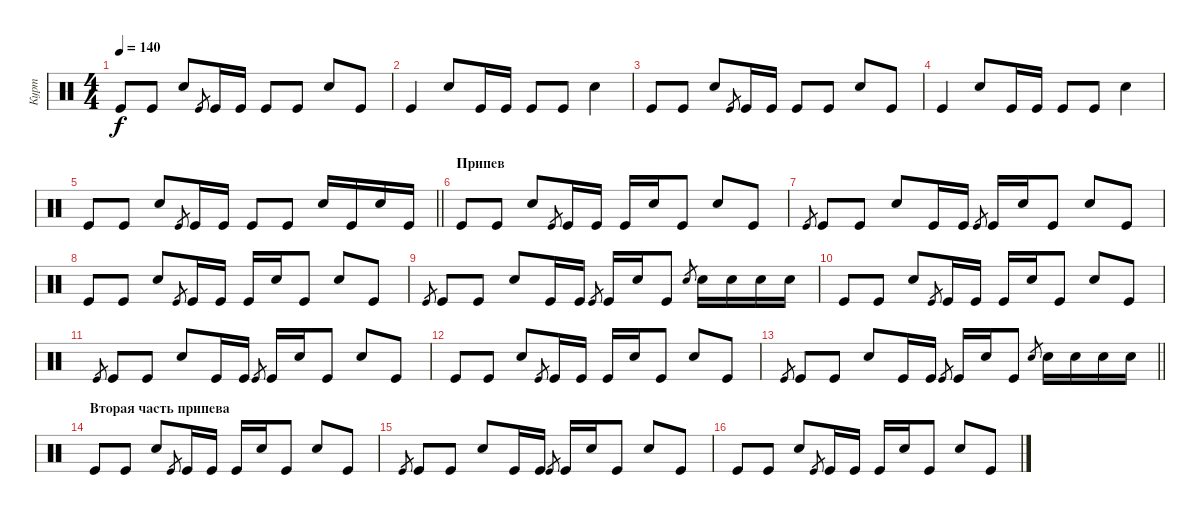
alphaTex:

\track ("Курт" "Курт") {instrument percussion}
\staff {score}
\articulation defaults
\ts (4 4)
\tempo 140
\clef neutral
\ks c "Kick (hit)".8{dy f} "Kick (hit)".8 "Snare (hit) 2".8 "Kick (hit)".8{gr} "Kick (hit)".16 "Kick (hit)".16 "Kick (hit)".8 "Kick (hit)".8 "Snare (hit) 2".8 "Kick (hit)".8
|
"Kick (hit)".4 "Snare (hit) 2".8 "Kick (hit)".16 "Kick (hit)".16 "Kick (hit)".8 "Kick (hit)".8 "Snare (hit) 2".4 |
"Kick (hit)".8 "Kick (hit)".8 "Snare (hit) 2".8 "Kick (hit)".8{gr} "Kick (hit)".16 "Kick (hit)".16 "Kick (hit)".8 "Kick (hit)".8 "Snare (hit) 2".8 "Kick (hit)".8 |
"Kick (hit)".4 "Snare (hit) 2".8 "Kick (hit)".16 "Kick (hit)".16 "Kick (hit)".8 "Kick (hit)".8 "Snare (hit) 2".4 |
\barLineRight lightlight "Kick (hit)".8 "Kick (hit)".8 "Snare (hit) 2".8 "Kick (hit)".8{gr} "Kick (hit)".16 "Kick (hit)".16 "Kick (hit)".8 "Kick (hit)".8 "Snare (hit) 2".16 "Kick (hit)".16 "Snare (hit) 2".16 "Kick (hit)".16
|
\section ("" "Припев")
"Kick (hit)".8 "Kick (hit)".8 "Snare (hit) 2".8 "Kick (hit)".8{gr} "Kick (hit)".16 "Kick (hit)".16 "Kick (hit)".16 "Snare (hit) 2".16 "Kick (hit)".8 "Snare (hit) 2".8 "Kick (hit)".8 |
"Kick (hit)".8{gr} "Kick (hit)".8 "Kick (hit)".8 "Snare (hit) 2".8 "Kick (hit)".16 "Kick (hit)".16 "Kick (hit)".8{gr} "Kick (hit)".16 "Snare (hit) 2".16 "Kick (hit)".8 "Snare (hit) 2".8 "Kick (hit)".8 |
"Kick (hit)".8 "Kick (hit)".8 "Snare (hit) 2".8 "Kick (hit)".8{gr} "Kick (hit)".16 "Kick (hit)".16 "Kick (hit)".16 "Snare (hit) 2".16 "Kick (hit)".8 "Snare (hit) 2".8 "Kick (hit)".8 |
"Kick (hit)".8{gr} "Kick (hit)".8 "Kick (hit)".8 "Snare (hit) 2".8 "Kick (hit)".16 "Kick (hit)".16 "Kick (hit)".8{gr} "Kick (hit)".16 "Snare (hit) 2".16 "Kick (hit)".8 "Snare (hit) 2".8{gr} "Snare (hit) 2".16 "Snare (hit) 2".16 "Snare (hit) 2".16 "Snare (hit) 2".16 |
"Kick (hit)".8 "Kick (hit)".8 "Snare (hit) 2".8 "Kick (hit)".8{gr} "Kick (hit)".16 "Kick (hit)".16 "Kick (hit)".16 "Snare (hit) 2".16 "Kick (hit)".8 "Snare (hit) 2".8 "Kick (hit)".8 |
"Kick (hit)".8{gr} "Kick (hit)".8 "Kick (hit)".8 "Snare (hit) 2".8 "Kick (hit)".16 "Kick (hit)".16 "Kick (hit)".8{gr} "Kick (hit)".16 "Snare (hit) 2".16 "Kick (hit)".8 "Snare (hit) 2".8 "Kick (hit)".8 |
"Kick (hit)".8 "Kick (hit)".8 "Snare (hit) 2".8 "Kick (hit)".8{gr} "Kick (hit)".16 "Kick (hit)".16 "Kick (hit)".16 "Snare (hit) 2".16 "Kick (hit)".8 "Snare (hit) 2".8 "Kick (hit)".8 |
\barLineRight lightlight "Kick (hit)".8{gr} "Kick (hit)".8 "Kick (hit)".8 "Snare (hit) 2".8 "Kick (hit)".16 "Kick (hit)".16 "Kick (hit)".8{gr} "Kick (hit)".16 "Snare (hit) 2".16 "Kick (hit)".8 "Snare (hit) 2".8{gr} "Snare (hit) 2".16 "Snare (hit) 2".16 "Snare (hit) 2".16 "Snare (hit) 2".16
|
\section ("" "Вторая часть припева")
"Kick (hit)".8 "Kick (hit)".8 "Snare (hit) 2".8 "Kick (hit)".8{gr} "Kick (hit)".16 "Kick (hit)".16 "Kick (hit)".16 "Snare (hit) 2".16 "Kick (hit)".8 "Snare (hit) 2".8 "Kick (hit)".8 |
"Kick (hit)".8{gr} "Kick (hit)".8 "Kick (hit)".8 "Snare (hit) 2".8 "Kick (hit)".16 "Kick (hit)".16 "Kick (hit)".8{gr} "Kick (hit)".16 "Snare (hit) 2".16 "Kick (hit)".8 "Snare (hit) 2".8 "Kick (hit)".8 |
"Kick (hit)".8 "Kick (hit)".8 "Snare (hit) 2".8 "Kick (hit)".8{gr} "Kick (hit)".16 "Kick (hit)".16 "Kick (hit)".16 "Snare (hit) 2".16 "Kick (hit)".8 "Snare (hit) 2".8 "Kick (hit)".8
